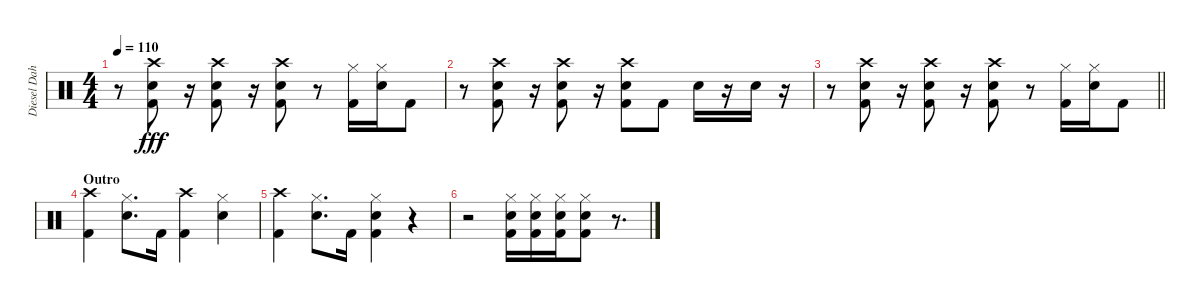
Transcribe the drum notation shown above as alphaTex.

\track ("Diesel Dahl" "Diesel Dah") {instrument percussion}
\staff {score}
\articulation defaults
\ts (4 4)
\tempo 110
\clef neutral
\ks c
r.8{dy fff} ("Crash high (hit)" "Snare (hit) 2" "Kick (hit) 2").8 r.16 ("Crash high (hit)" "Snare (hit) 2" "Kick (hit) 2").8 r.16 ("Crash high (hit)" "Snare (hit) 2" "Kick (hit) 2").8 r.8 ("Hi-Hat (closed)" "Kick (hit) 2").16 ("Hi-Hat (closed)" "Snare (hit) 2").16 "Kick (hit) 2".8 |
r.8 ("Crash high (hit)" "Snare (hit) 2" "Kick (hit) 2").8 r.16 ("Crash high (hit)" "Snare (hit) 2" "Kick (hit) 2").8 r.16 ("Crash high (hit)" "Snare (hit) 2" "Kick (hit) 2").8 "Kick (hit) 2".8 "Snare (hit) 2".16 r.16 "Snare (hit) 2".16 r.16 |
\barLineRight lightlight
r.8 ("Crash high (hit)" "Snare (hit) 2" "Kick (hit) 2").8 r.16 ("Crash high (hit)" "Snare (hit) 2" "Kick (hit) 2").8 r.16 ("Crash high (hit)" "Snare (hit) 2" "Kick (hit) 2").8 r.8 ("Hi-Hat (closed)" "Kick (hit) 2").16 ("Hi-Hat (closed)" "Snare (hit) 2").16 "Kick (hit) 2".8 |
\section ("" "Outro")
("Crash high (hit)" "Kick (hit) 2").4 ("Hi-Hat (closed)" "Snare (hit) 2").8{d} "Kick (hit) 2".16 ("Crash high (hit)" "Kick (hit) 2").4 ("Hi-Hat (closed)" "Snare (hit) 2").4 |
("Crash high (hit)" "Kick (hit) 2").4 ("Hi-Hat (closed)" "Snare (hit) 2").8{d} "Kick (hit) 2".16 ("Hi-Hat (closed)" "Snare (hit) 2" "Kick (hit) 2").4 r.4 |
r.2 ("Hi-Hat (closed)" "Snare (hit) 2" "Kick (hit) 2").16 ("Hi-Hat (closed)" "Snare (hit) 2" "Kick (hit) 2").16 ("Hi-Hat (closed)" "Snare (hit) 2" "Kick (hit) 2").16 ("Hi-Hat (closed)" "Snare (hit) 2" "Kick (hit) 2").8 r.8{d}
